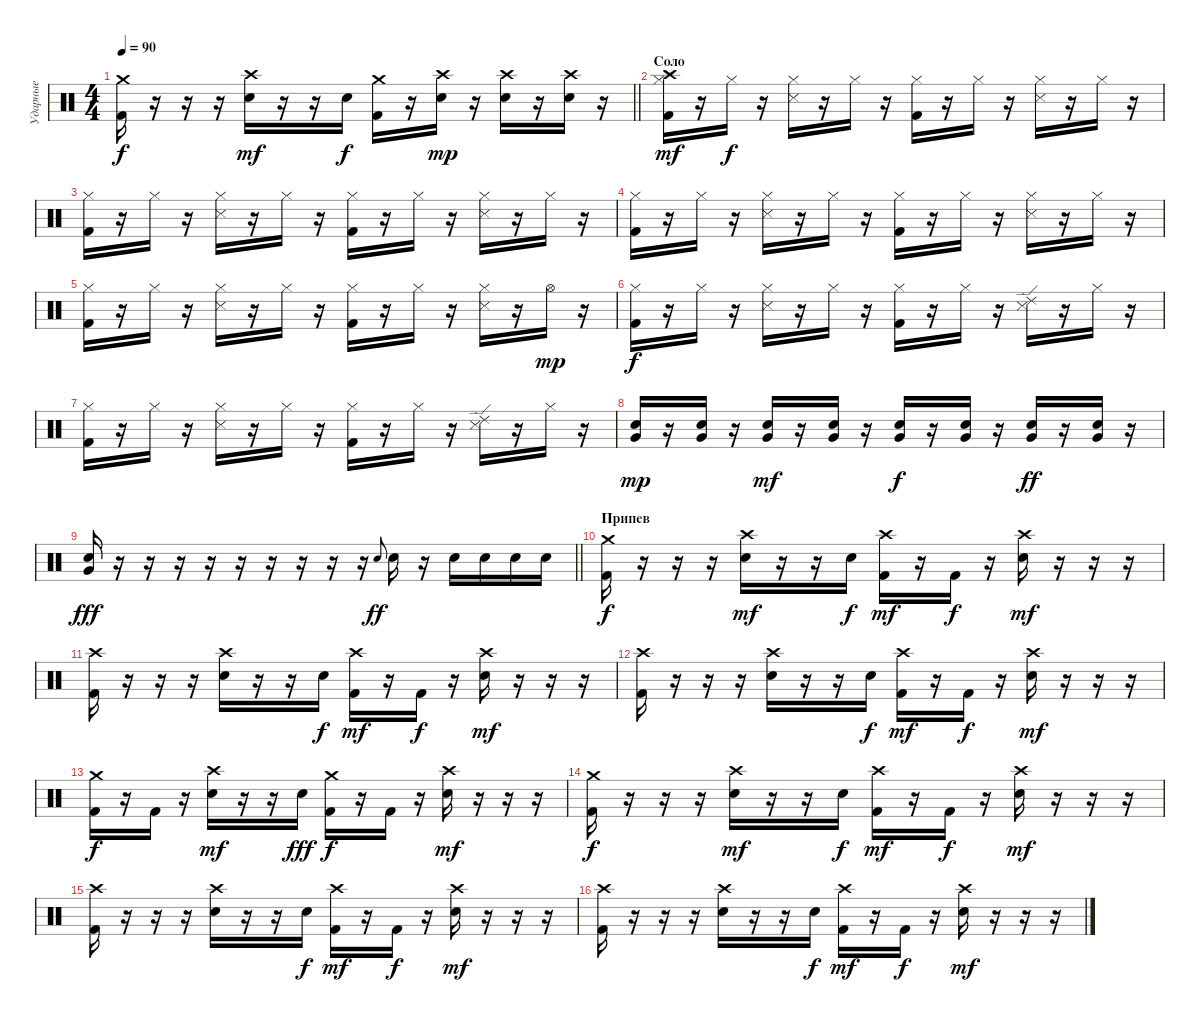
\track ("Ударные" "Ударные") {instrument percussion}
\staff {score}
\articulation defaults
\ts (4 4)
\tempo 90
\clef neutral
\barLineRight lightlight
\ks c
("Crash medium (hit)" "Kick (hit) 2").16{dy f} r.16 r.16 r.16 ("Crash high (hit)" "Electric Snare (hit)").16{dy mf} r.16 r.16 "Electric Snare (hit)".16{dy f} ("Crash medium (hit)" "Kick (hit) 2").16 r.16 ("Crash high (hit)" "Electric Snare (hit)").16{dy mp} r.16 ("Crash high (hit)" "Electric Snare (hit)").16 r.16 ("Crash high (hit)" "Electric Snare (hit)").16 r.16 |
\section ("" "Соло")
("Hi-Hat (closed)" "Crash high (hit)" "Kick (hit) 2").16{dy mf} r.16 "Hi-Hat (closed)".16{dy f} r.16 ("Hi-Hat (closed)" "Snare (side stick) 3").16 r.16 "Hi-Hat (closed)".16 r.16 ("Hi-Hat (closed)" "Kick (hit) 2").16 r.16 "Hi-Hat (closed)".16 r.16 ("Hi-Hat (closed)" "Snare (side stick) 3").16 r.16 "Hi-Hat (closed)".16 r.16 |
("Hi-Hat (closed)" "Kick (hit) 2").16 r.16 "Hi-Hat (closed)".16 r.16 ("Hi-Hat (closed)" "Snare (side stick) 3").16 r.16 "Hi-Hat (closed)".16 r.16 ("Hi-Hat (closed)" "Kick (hit) 2").16 r.16 "Hi-Hat (closed)".16 r.16 ("Hi-Hat (closed)" "Snare (side stick) 3").16 r.16 "Hi-Hat (closed)".16 r.16 |
("Hi-Hat (closed)" "Kick (hit) 2").16 r.16 "Hi-Hat (closed)".16 r.16 ("Hi-Hat (closed)" "Snare (side stick) 3").16 r.16 "Hi-Hat (closed)".16 r.16 ("Hi-Hat (closed)" "Kick (hit) 2").16 r.16 "Hi-Hat (closed)".16 r.16 ("Hi-Hat (closed)" "Snare (side stick) 3").16 r.16 "Hi-Hat (closed)".16 r.16 |
("Hi-Hat (closed)" "Kick (hit) 2").16 r.16 "Hi-Hat (closed)".16 r.16 ("Hi-Hat (closed)" "Snare (side stick) 3").16 r.16 "Hi-Hat (closed)".16 r.16 ("Hi-Hat (closed)" "Kick (hit) 2").16 r.16 "Hi-Hat (closed)".16 r.16 ("Hi-Hat (closed)" "Snare (side stick) 3").16 r.16 "Hi-Hat (open)".16{dy mp} r.16 |
("Hi-Hat (closed)" "Kick (hit) 2").16{dy f} r.16 "Hi-Hat (closed)".16 r.16 ("Hi-Hat (closed)" "Snare (side stick) 3").16 r.16 "Hi-Hat (closed)".16 r.16 ("Hi-Hat (closed)" "Kick (hit) 2").16 r.16 "Hi-Hat (closed)".16 r.16 ("Ride (edge) 2" "Snare (side stick) 3").16 r.16 "Hi-Hat (closed)".16 r.16 |
("Hi-Hat (closed)" "Kick (hit) 2").16 r.16 "Hi-Hat (closed)".16 r.16 ("Hi-Hat (closed)" "Snare (side stick) 3").16 r.16 "Hi-Hat (closed)".16 r.16 ("Hi-Hat (closed)" "Kick (hit) 2").16 r.16 "Hi-Hat (closed)".16 r.16 ("Ride (edge) 2" "Snare (side stick) 3").16 r.16 "Hi-Hat (closed)".16 r.16 |
("Very Low Tom (hit)" "Electric Snare (hit)").16{dy mp} r.16 ("Very Low Tom (hit)" "Electric Snare (hit)").16 r.16 ("Very Low Tom (hit)" "Electric Snare (hit)").16{dy mf} r.16 ("Very Low Tom (hit)" "Electric Snare (hit)").16 r.16 ("Very Low Tom (hit)" "Electric Snare (hit)").16{dy f} r.16 ("Very Low Tom (hit)" "Electric Snare (hit)").16 r.16 ("Very Low Tom (hit)" "Electric Snare (hit)").16{dy ff} r.16 ("Very Low Tom (hit)" "Electric Snare (hit)").16 r.16 |
\barLineRight lightlight
("Very Low Tom (hit)" "Electric Snare (hit)").16{dy fff} r.16 r.16 r.16 r.16 r.16 r.16 r.16 r.16 r.16 "Electric Snare (hit)".8{gr onbeat dy ff} "Electric Snare (hit)".16 r.16 "Electric Snare (hit)".16 "Electric Snare (hit)".16 "Electric Snare (hit)".16 "Electric Snare (hit)".16 |
\section ("" "Припев")
("Crash medium (hit)" "Kick (hit) 2").16{dy f} r.16 r.16 r.16 ("Crash high (hit)" "Electric Snare (hit)").16{dy mf} r.16 r.16 "Electric Snare (hit)".16{dy f} ("Crash high (hit)" "Kick (hit) 2").16{dy mf} r.16 "Kick (hit) 2".16{dy f} r.16 ("Crash high (hit)" "Electric Snare (hit)").16{dy mf} r.16 r.16 r.16 |
("Crash high (hit)" "Kick (hit) 2").16 r.16 r.16 r.16 ("Crash high (hit)" "Electric Snare (hit)").16 r.16 r.16 "Electric Snare (hit)".16{dy f} ("Crash high (hit)" "Kick (hit) 2").16{dy mf} r.16 "Kick (hit) 2".16{dy f} r.16 ("Crash high (hit)" "Electric Snare (hit)").16{dy mf} r.16 r.16 r.16 |
("Crash high (hit)" "Kick (hit) 2").16 r.16 r.16 r.16 ("Crash high (hit)" "Electric Snare (hit)").16 r.16 r.16 "Electric Snare (hit)".16{dy f} ("Crash high (hit)" "Kick (hit) 2").16{dy mf} r.16 "Kick (hit) 2".16{dy f} r.16 ("Crash high (hit)" "Electric Snare (hit)").16{dy mf} r.16 r.16 r.16 |
("Crash medium (hit)" "Kick (hit) 2").16{dy f} r.16 "Kick (hit) 2".16 r.16 ("Crash high (hit)" "Electric Snare (hit)").16{dy mf} r.16 r.16 "Electric Snare (hit)".16{dy fff} ("Crash medium (hit)" "Kick (hit) 2").16{dy f} r.16 "Kick (hit) 2".16 r.16 ("Crash high (hit)" "Electric Snare (hit)").16{dy mf} r.16 r.16 r.16 |
("Crash medium (hit)" "Kick (hit) 2").16{dy f} r.16 r.16 r.16 ("Crash high (hit)" "Electric Snare (hit)").16{dy mf} r.16 r.16 "Electric Snare (hit)".16{dy f} ("Crash high (hit)" "Kick (hit) 2").16{dy mf} r.16 "Kick (hit) 2".16{dy f} r.16 ("Crash high (hit)" "Electric Snare (hit)").16{dy mf} r.16 r.16 r.16 |
("Crash high (hit)" "Kick (hit) 2").16 r.16 r.16 r.16 ("Crash high (hit)" "Electric Snare (hit)").16 r.16 r.16 "Electric Snare (hit)".16{dy f} ("Crash high (hit)" "Kick (hit) 2").16{dy mf} r.16 "Kick (hit) 2".16{dy f} r.16 ("Crash high (hit)" "Electric Snare (hit)").16{dy mf} r.16 r.16 r.16 |
("Crash high (hit)" "Kick (hit) 2").16 r.16 r.16 r.16 ("Crash high (hit)" "Electric Snare (hit)").16 r.16 r.16 "Electric Snare (hit)".16{dy f} ("Crash high (hit)" "Kick (hit) 2").16{dy mf} r.16 "Kick (hit) 2".16{dy f} r.16 ("Crash high (hit)" "Electric Snare (hit)").16{dy mf} r.16 r.16 r.16
